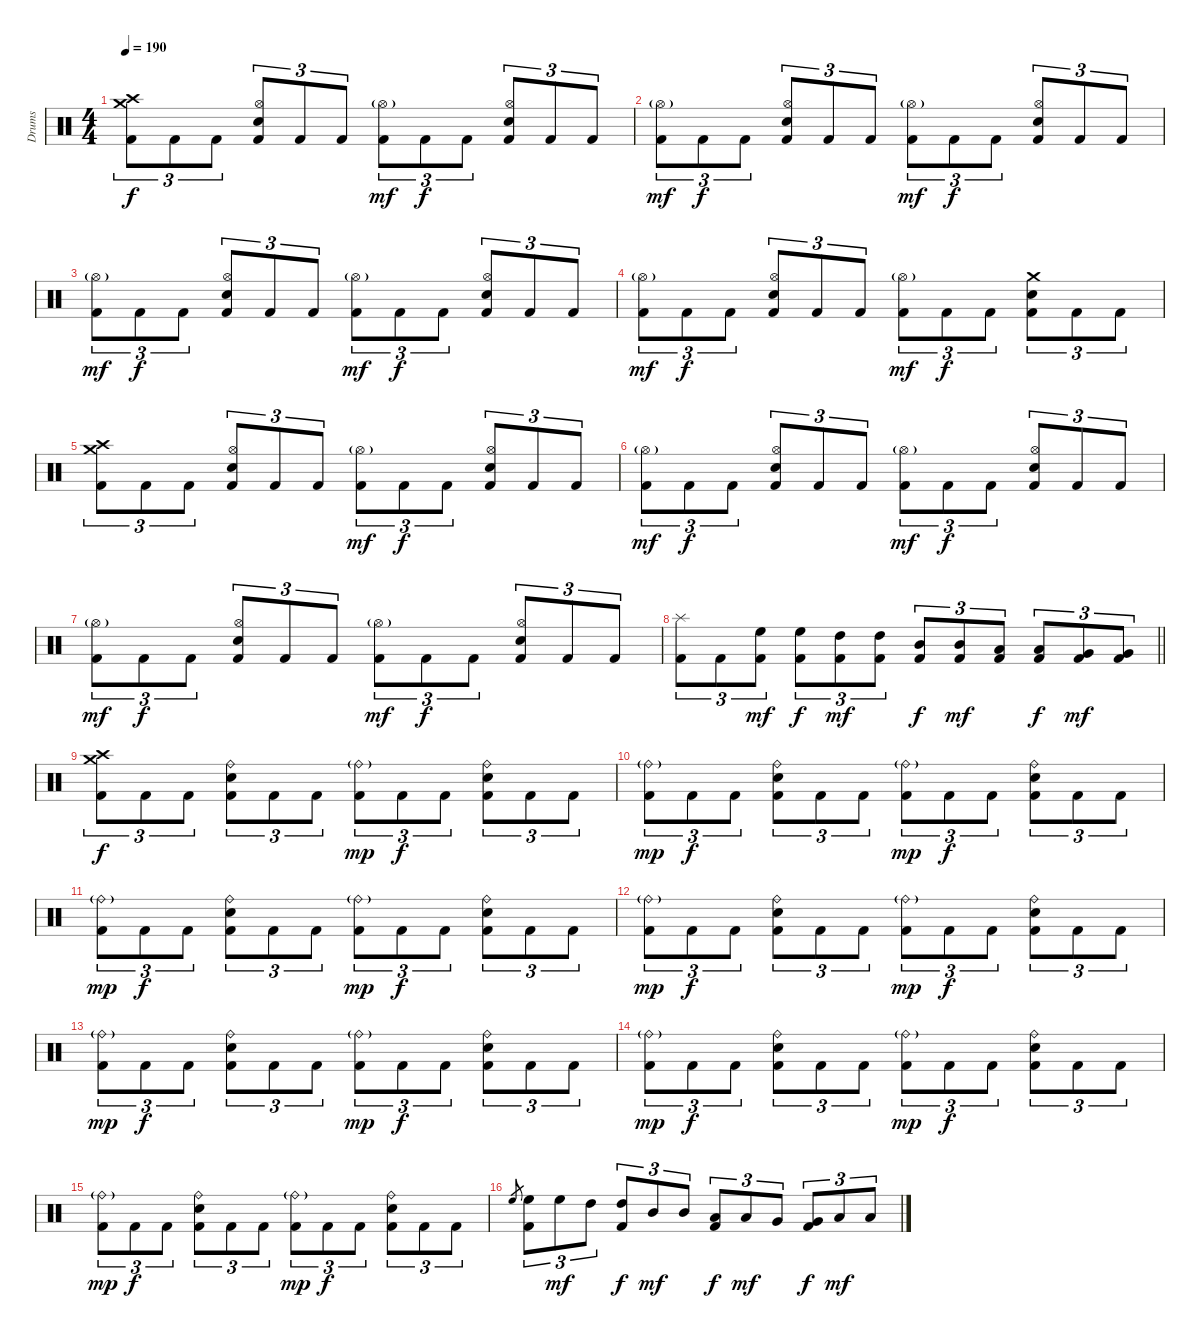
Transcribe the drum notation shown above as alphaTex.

\track ("Drums" "Drums") {instrument percussion}
\staff {score}
\articulation defaults
\ts (4 4)
\tempo 190
\clef neutral
\ks c
("Crash high (hit)" "Crash medium (hit)" "Kick (hit) 2").8{tu (3 2) dy f} "Kick (hit) 2".8{tu (3 2)} "Kick (hit) 2".8{tu (3 2)} ("Hi-Hat (open)" "Electric Snare (hit)" "Kick (hit) 2").8{tu (3 2)} "Kick (hit) 2".8{tu (3 2)} "Kick (hit) 2".8{tu (3 2)} ("Hi-Hat (open)"{g} "Kick (hit) 2").8{tu (3 2) dy mf} "Kick (hit) 2".8{tu (3 2) dy f} "Kick (hit) 2".8{tu (3 2)} ("Hi-Hat (open)" "Electric Snare (hit)" "Kick (hit) 2").8{tu (3 2)} "Kick (hit) 2".8{tu (3 2)} "Kick (hit) 2".8{tu (3 2)} |
("Hi-Hat (open)"{g} "Kick (hit) 2").8{tu (3 2) dy mf} "Kick (hit) 2".8{tu (3 2) dy f} "Kick (hit) 2".8{tu (3 2)} ("Hi-Hat (open)" "Electric Snare (hit)" "Kick (hit) 2").8{tu (3 2)} "Kick (hit) 2".8{tu (3 2)} "Kick (hit) 2".8{tu (3 2)} ("Hi-Hat (open)"{g} "Kick (hit) 2").8{tu (3 2) dy mf} "Kick (hit) 2".8{tu (3 2) dy f} "Kick (hit) 2".8{tu (3 2)} ("Hi-Hat (open)" "Electric Snare (hit)" "Kick (hit) 2").8{tu (3 2)} "Kick (hit) 2".8{tu (3 2)} "Kick (hit) 2".8{tu (3 2)} |
("Hi-Hat (open)"{g} "Kick (hit) 2").8{tu (3 2) dy mf} "Kick (hit) 2".8{tu (3 2) dy f} "Kick (hit) 2".8{tu (3 2)} ("Hi-Hat (open)" "Electric Snare (hit)" "Kick (hit) 2").8{tu (3 2)} "Kick (hit) 2".8{tu (3 2)} "Kick (hit) 2".8{tu (3 2)} ("Hi-Hat (open)"{g} "Kick (hit) 2").8{tu (3 2) dy mf} "Kick (hit) 2".8{tu (3 2) dy f} "Kick (hit) 2".8{tu (3 2)} ("Hi-Hat (open)" "Electric Snare (hit)" "Kick (hit) 2").8{tu (3 2)} "Kick (hit) 2".8{tu (3 2)} "Kick (hit) 2".8{tu (3 2)} |
("Hi-Hat (open)"{g} "Kick (hit) 2").8{tu (3 2) dy mf} "Kick (hit) 2".8{tu (3 2) dy f} "Kick (hit) 2".8{tu (3 2)} ("Hi-Hat (open)" "Electric Snare (hit)" "Kick (hit) 2").8{tu (3 2)} "Kick (hit) 2".8{tu (3 2)} "Kick (hit) 2".8{tu (3 2)} ("Hi-Hat (open)"{g} "Kick (hit) 2").8{tu (3 2) dy mf} "Kick (hit) 2".8{tu (3 2) dy f} "Kick (hit) 2".8{tu (3 2)} ("Crash medium (hit)" "Electric Snare (hit)" "Kick (hit) 2").8{tu (3 2)} "Kick (hit) 2".8{tu (3 2)} "Kick (hit) 2".8{tu (3 2)} |
("Crash high (hit)" "Crash medium (hit)" "Kick (hit) 2").8{tu (3 2)} "Kick (hit) 2".8{tu (3 2)} "Kick (hit) 2".8{tu (3 2)} ("Hi-Hat (open)" "Electric Snare (hit)" "Kick (hit) 2").8{tu (3 2)} "Kick (hit) 2".8{tu (3 2)} "Kick (hit) 2".8{tu (3 2)} ("Hi-Hat (open)"{g} "Kick (hit) 2").8{tu (3 2) dy mf} "Kick (hit) 2".8{tu (3 2) dy f} "Kick (hit) 2".8{tu (3 2)} ("Hi-Hat (open)" "Electric Snare (hit)" "Kick (hit) 2").8{tu (3 2)} "Kick (hit) 2".8{tu (3 2)} "Kick (hit) 2".8{tu (3 2)} |
("Hi-Hat (open)"{g} "Kick (hit) 2").8{tu (3 2) dy mf} "Kick (hit) 2".8{tu (3 2) dy f} "Kick (hit) 2".8{tu (3 2)} ("Hi-Hat (open)" "Electric Snare (hit)" "Kick (hit) 2").8{tu (3 2)} "Kick (hit) 2".8{tu (3 2)} "Kick (hit) 2".8{tu (3 2)} ("Hi-Hat (open)"{g} "Kick (hit) 2").8{tu (3 2) dy mf} "Kick (hit) 2".8{tu (3 2) dy f} "Kick (hit) 2".8{tu (3 2)} ("Hi-Hat (open)" "Electric Snare (hit)" "Kick (hit) 2").8{tu (3 2)} "Kick (hit) 2".8{tu (3 2)} "Kick (hit) 2".8{tu (3 2)} |
("Hi-Hat (open)"{g} "Kick (hit) 2").8{tu (3 2) dy mf} "Kick (hit) 2".8{tu (3 2) dy f} "Kick (hit) 2".8{tu (3 2)} ("Hi-Hat (open)" "Electric Snare (hit)" "Kick (hit) 2").8{tu (3 2)} "Kick (hit) 2".8{tu (3 2)} "Kick (hit) 2".8{tu (3 2)} ("Hi-Hat (open)"{g} "Kick (hit) 2").8{tu (3 2) dy mf} "Kick (hit) 2".8{tu (3 2) dy f} "Kick (hit) 2".8{tu (3 2)} ("Hi-Hat (open)" "Electric Snare (hit)" "Kick (hit) 2").8{tu (3 2)} "Kick (hit) 2".8{tu (3 2)} "Kick (hit) 2".8{tu (3 2)} |
\barLineRight lightlight
("Splash (hit)" "Kick (hit) 2").8{tu (3 2)} "Kick (hit) 2".8{tu (3 2)} ("High Floor Tom (hit)" "Kick (hit) 2").8{tu (3 2) dy mf} ("High Floor Tom (hit)" "Kick (hit) 2").8{tu (3 2) dy f} ("High Tom (hit)" "Kick (hit) 2").8{tu (3 2) dy mf} ("High Tom (hit)" "Kick (hit) 2").8{tu (3 2)} ("Mid Tom (hit)" "Kick (hit) 2").8{tu (3 2) dy f} ("Mid Tom (hit)" "Kick (hit) 2").8{tu (3 2) dy mf} ("Low Tom (hit)" "Kick (hit) 2").8{tu (3 2)} ("Low Tom (hit)" "Kick (hit) 2").8{tu (3 2) dy f} ("Very Low Tom (hit)" "Kick (hit) 2").8{tu (3 2) dy mf} ("Very Low Tom (hit)" "Kick (hit) 2").8{tu (3 2)} |
("Crash high (hit)" "Crash medium (hit)" "Kick (hit) 2").8{tu (3 2) dy f} "Kick (hit) 2".8{tu (3 2)} "Kick (hit) 2".8{tu (3 2)} ("Ride (bell)" "Electric Snare (hit)" "Kick (hit) 2").8{tu (3 2)} "Kick (hit) 2".8{tu (3 2)} "Kick (hit) 2".8{tu (3 2)} ("Ride (bell)"{g} "Kick (hit) 2").8{tu (3 2) dy mp} "Kick (hit) 2".8{tu (3 2) dy f} "Kick (hit) 2".8{tu (3 2)} ("Ride (bell)" "Electric Snare (hit)" "Kick (hit) 2").8{tu (3 2)} "Kick (hit) 2".8{tu (3 2)} "Kick (hit) 2".8{tu (3 2)} |
("Ride (bell)"{g} "Kick (hit) 2").8{tu (3 2) dy mp} "Kick (hit) 2".8{tu (3 2) dy f} "Kick (hit) 2".8{tu (3 2)} ("Ride (bell)" "Electric Snare (hit)" "Kick (hit) 2").8{tu (3 2)} "Kick (hit) 2".8{tu (3 2)} "Kick (hit) 2".8{tu (3 2)} ("Ride (bell)"{g} "Kick (hit) 2").8{tu (3 2) dy mp} "Kick (hit) 2".8{tu (3 2) dy f} "Kick (hit) 2".8{tu (3 2)} ("Ride (bell)" "Electric Snare (hit)" "Kick (hit) 2").8{tu (3 2)} "Kick (hit) 2".8{tu (3 2)} "Kick (hit) 2".8{tu (3 2)} |
("Ride (bell)"{g} "Kick (hit) 2").8{tu (3 2) dy mp} "Kick (hit) 2".8{tu (3 2) dy f} "Kick (hit) 2".8{tu (3 2)} ("Ride (bell)" "Electric Snare (hit)" "Kick (hit) 2").8{tu (3 2)} "Kick (hit) 2".8{tu (3 2)} "Kick (hit) 2".8{tu (3 2)} ("Ride (bell)"{g} "Kick (hit) 2").8{tu (3 2) dy mp} "Kick (hit) 2".8{tu (3 2) dy f} "Kick (hit) 2".8{tu (3 2)} ("Ride (bell)" "Electric Snare (hit)" "Kick (hit) 2").8{tu (3 2)} "Kick (hit) 2".8{tu (3 2)} "Kick (hit) 2".8{tu (3 2)} |
("Ride (bell)"{g} "Kick (hit) 2").8{tu (3 2) dy mp} "Kick (hit) 2".8{tu (3 2) dy f} "Kick (hit) 2".8{tu (3 2)} ("Ride (bell)" "Electric Snare (hit)" "Kick (hit) 2").8{tu (3 2)} "Kick (hit) 2".8{tu (3 2)} "Kick (hit) 2".8{tu (3 2)} ("Ride (bell)"{g} "Kick (hit) 2").8{tu (3 2) dy mp} "Kick (hit) 2".8{tu (3 2) dy f} "Kick (hit) 2".8{tu (3 2)} ("Ride (bell)" "Electric Snare (hit)" "Kick (hit) 2").8{tu (3 2)} "Kick (hit) 2".8{tu (3 2)} "Kick (hit) 2".8{tu (3 2)} |
("Ride (bell)"{g} "Kick (hit) 2").8{tu (3 2) dy mp} "Kick (hit) 2".8{tu (3 2) dy f} "Kick (hit) 2".8{tu (3 2)} ("Ride (bell)" "Electric Snare (hit)" "Kick (hit) 2").8{tu (3 2)} "Kick (hit) 2".8{tu (3 2)} "Kick (hit) 2".8{tu (3 2)} ("Ride (bell)"{g} "Kick (hit) 2").8{tu (3 2) dy mp} "Kick (hit) 2".8{tu (3 2) dy f} "Kick (hit) 2".8{tu (3 2)} ("Ride (bell)" "Electric Snare (hit)" "Kick (hit) 2").8{tu (3 2)} "Kick (hit) 2".8{tu (3 2)} "Kick (hit) 2".8{tu (3 2)} |
("Ride (bell)"{g} "Kick (hit) 2").8{tu (3 2) dy mp} "Kick (hit) 2".8{tu (3 2) dy f} "Kick (hit) 2".8{tu (3 2)} ("Ride (bell)" "Electric Snare (hit)" "Kick (hit) 2").8{tu (3 2)} "Kick (hit) 2".8{tu (3 2)} "Kick (hit) 2".8{tu (3 2)} ("Ride (bell)"{g} "Kick (hit) 2").8{tu (3 2) dy mp} "Kick (hit) 2".8{tu (3 2) dy f} "Kick (hit) 2".8{tu (3 2)} ("Ride (bell)" "Electric Snare (hit)" "Kick (hit) 2").8{tu (3 2)} "Kick (hit) 2".8{tu (3 2)} "Kick (hit) 2".8{tu (3 2)} |
("Ride (bell)"{g} "Kick (hit) 2").8{tu (3 2) dy mp} "Kick (hit) 2".8{tu (3 2) dy f} "Kick (hit) 2".8{tu (3 2)} ("Ride (bell)" "Electric Snare (hit)" "Kick (hit) 2").8{tu (3 2)} "Kick (hit) 2".8{tu (3 2)} "Kick (hit) 2".8{tu (3 2)} ("Ride (bell)"{g} "Kick (hit) 2").8{tu (3 2) dy mp} "Kick (hit) 2".8{tu (3 2) dy f} "Kick (hit) 2".8{tu (3 2)} ("Ride (bell)" "Electric Snare (hit)" "Kick (hit) 2").8{tu (3 2)} "Kick (hit) 2".8{tu (3 2)} "Kick (hit) 2".8{tu (3 2)} |
"High Floor Tom (hit)".8{gr} ("High Floor Tom (hit)" "Kick (hit) 2").8{tu (3 2)} "High Floor Tom (hit)".8{tu (3 2) dy mf} "High Tom (hit)".8{tu (3 2)} ("High Tom (hit)" "Kick (hit) 2").8{tu (3 2) dy f} "Mid Tom (hit)".8{tu (3 2) dy mf} "Mid Tom (hit)".8{tu (3 2)} ("Low Tom (hit)" "Kick (hit) 2").8{tu (3 2) dy f} "Low Tom (hit)".8{tu (3 2) dy mf} "Very Low Tom (hit)".8{tu (3 2)} ("Very Low Tom (hit)" "Kick (hit) 2").8{tu (3 2) dy f} "Low Floor Tom (hit)".8{tu (3 2) dy mf} "Low Floor Tom (hit)".8{tu (3 2)}
